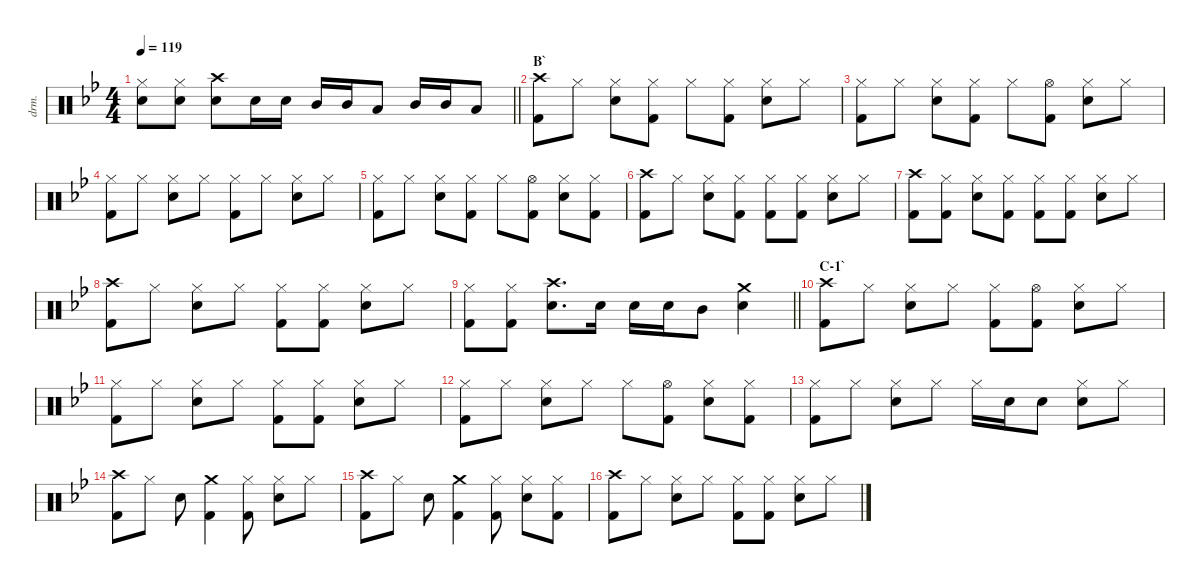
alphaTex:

\defaultSystemsLayout 4
\hideDynamics
\bracketExtendMode nobrackets
\otherSystemsTrackNameOrientation horizontal
\track ("Drums" "drm.") {instrument percussion}
\staff {score}
\articulation defaults
\ts (4 4)
\tempo 119
\clef neutral
\barLineRight lightlight
\ks bb
("Hi-Hat (closed)"{acc forcenatural} "Snare (hit) 2"{acc forcenatural}).8{dy f} ("Hi-Hat (closed)"{acc forcenatural} "Snare (hit) 2"{acc forcenatural}).8 ("Crash high (hit)"{acc forcenatural} "Snare (hit) 2"{acc forcenatural}).8 "Snare (hit) 2"{acc forcenatural}.16 "Snare (hit) 2"{acc forcenatural}.16 "Mid Tom (hit)"{acc forcenatural}.16 "Mid Tom (hit)"{acc forcenatural}.16 "Low Tom (hit)"{acc forcenatural}.8 "Mid Tom (hit)"{acc forcenatural}.16 "Mid Tom (hit)"{acc forcenatural}.16 "Low Tom (hit)"{acc forcenatural}.8 |
\section ("" "B`")
("Crash high (hit)"{acc forcenatural} "Kick (hit) 2"{acc forcenatural}).8 "Hi-Hat (closed)"{acc forcenatural}.8 ("Hi-Hat (closed)"{acc forcenatural} "Snare (hit) 2"{acc forcenatural}).8 ("Hi-Hat (closed)"{acc forcenatural} "Kick (hit) 2"{acc forcenatural}).8 "Hi-Hat (closed)"{acc forcenatural}.8 ("Hi-Hat (closed)"{acc forcenatural} "Kick (hit) 2"{acc forcenatural}).8 ("Hi-Hat (closed)"{acc forcenatural} "Snare (hit) 2"{acc forcenatural}).8 "Hi-Hat (closed)"{acc forcenatural}.8 |
("Hi-Hat (closed)"{acc forcenatural} "Kick (hit) 2"{acc forcenatural}).8 "Hi-Hat (closed)"{acc forcenatural}.8 ("Hi-Hat (closed)"{acc forcenatural} "Snare (hit) 2"{acc forcenatural}).8 ("Hi-Hat (closed)"{acc forcenatural} "Kick (hit) 2"{acc forcenatural}).8 "Hi-Hat (closed)"{acc forcenatural}.8 ("Hi-Hat (open)"{acc forcenatural} "Kick (hit) 2"{acc forcenatural}).8 ("Hi-Hat (closed)"{acc forcenatural} "Snare (hit) 2"{acc forcenatural}).8 "Hi-Hat (closed)"{acc forcenatural}.8 |
("Hi-Hat (closed)"{acc forcenatural} "Kick (hit) 2"{acc forcenatural}).8 "Hi-Hat (closed)"{acc forcenatural}.8 ("Hi-Hat (closed)"{acc forcenatural} "Snare (hit) 2"{acc forcenatural}).8 "Hi-Hat (closed)"{acc forcenatural}.8 ("Hi-Hat (closed)"{acc forcenatural} "Kick (hit) 2"{acc forcenatural}).8 "Hi-Hat (closed)"{acc forcenatural}.8 ("Hi-Hat (closed)"{acc forcenatural} "Snare (hit) 2"{acc forcenatural}).8 "Hi-Hat (closed)"{acc forcenatural}.8 |
("Hi-Hat (closed)"{acc forcenatural} "Kick (hit) 2"{acc forcenatural}).8 "Hi-Hat (closed)"{acc forcenatural}.8 ("Hi-Hat (closed)"{acc forcenatural} "Snare (hit) 2"{acc forcenatural}).8 ("Hi-Hat (closed)"{acc forcenatural} "Kick (hit) 2"{acc forcenatural}).8 "Hi-Hat (closed)"{acc forcenatural}.8 ("Hi-Hat (open)"{acc forcenatural} "Kick (hit) 2"{acc forcenatural}).8 ("Hi-Hat (closed)"{acc forcenatural} "Snare (hit) 2"{acc forcenatural}).8 ("Hi-Hat (closed)"{acc forcenatural} "Kick (hit) 2"{acc forcenatural}).8 |
("Crash high (hit)"{acc forcenatural} "Kick (hit) 2"{acc forcenatural}).8 "Hi-Hat (closed)"{acc forcenatural}.8 ("Hi-Hat (closed)"{acc forcenatural} "Snare (hit) 2"{acc forcenatural}).8 ("Hi-Hat (closed)"{acc forcenatural} "Kick (hit) 2"{acc forcenatural}).8 ("Hi-Hat (closed)"{acc forcenatural} "Kick (hit) 2"{acc forcenatural}).8 ("Hi-Hat (closed)"{acc forcenatural} "Kick (hit) 2"{acc forcenatural}).8 ("Hi-Hat (closed)"{acc forcenatural} "Snare (hit) 2"{acc forcenatural}).8 "Hi-Hat (closed)"{acc forcenatural}.8 |
("Crash high (hit)"{acc forcenatural} "Kick (hit) 2"{acc forcenatural}).8 ("Hi-Hat (closed)"{acc forcenatural} "Kick (hit) 2"{acc forcenatural}).8 ("Hi-Hat (closed)"{acc forcenatural} "Snare (hit) 2"{acc forcenatural}).8 ("Hi-Hat (closed)"{acc forcenatural} "Kick (hit) 2"{acc forcenatural}).8 ("Hi-Hat (closed)"{acc forcenatural} "Kick (hit) 2"{acc forcenatural}).8 ("Hi-Hat (closed)"{acc forcenatural} "Kick (hit) 2"{acc forcenatural}).8 ("Hi-Hat (closed)"{acc forcenatural} "Snare (hit) 2"{acc forcenatural}).8 "Hi-Hat (closed)"{acc forcenatural}.8 |
("Crash high (hit)"{acc forcenatural} "Kick (hit) 2"{acc forcenatural}).8 "Hi-Hat (closed)"{acc forcenatural}.8 ("Hi-Hat (closed)"{acc forcenatural} "Snare (hit) 2"{acc forcenatural}).8 "Hi-Hat (closed)"{acc forcenatural}.8 ("Hi-Hat (closed)"{acc forcenatural} "Kick (hit) 2"{acc forcenatural}).8 ("Hi-Hat (closed)"{acc forcenatural} "Kick (hit) 2"{acc forcenatural}).8 ("Hi-Hat (closed)"{acc forcenatural} "Snare (hit) 2"{acc forcenatural}).8 "Hi-Hat (closed)"{acc forcenatural}.8 |
\barLineRight lightlight
("Hi-Hat (closed)"{acc forcenatural} "Kick (hit) 2"{acc forcenatural}).8 ("Hi-Hat (closed)"{acc forcenatural} "Kick (hit) 2"{acc forcenatural}).8 ("Crash high (hit)"{acc forcenatural} "Snare (hit) 2"{acc forcenatural}).8{d} "Snare (hit) 2"{acc forcenatural}.16 "Snare (hit) 2"{acc forcenatural}.16 "Snare (hit) 2"{acc forcenatural}.16 "Mid Tom (hit)"{acc forcenatural}.8 ("Crash medium (hit)"{acc forcenatural} "Snare (hit) 2"{acc forcenatural}).4 |
\section ("" "C-1`")
("Crash high (hit)"{acc forcenatural} "Kick (hit) 2"{acc forcenatural}).8 "Hi-Hat (closed)"{acc forcenatural}.8 ("Hi-Hat (closed)"{acc forcenatural} "Snare (hit) 2"{acc forcenatural}).8 "Hi-Hat (closed)"{acc forcenatural}.8 ("Hi-Hat (closed)"{acc forcenatural} "Kick (hit) 2"{acc forcenatural}).8 ("Hi-Hat (open)"{acc forcenatural} "Kick (hit) 2"{acc forcenatural}).8 ("Hi-Hat (closed)"{acc forcenatural} "Snare (hit) 2"{acc forcenatural}).8 "Hi-Hat (closed)"{acc forcenatural}.8 |
("Hi-Hat (closed)"{acc forcenatural} "Kick (hit) 2"{acc forcenatural}).8 "Hi-Hat (closed)"{acc forcenatural}.8 ("Hi-Hat (closed)"{acc forcenatural} "Snare (hit) 2"{acc forcenatural}).8 "Hi-Hat (closed)"{acc forcenatural}.8 ("Hi-Hat (closed)"{acc forcenatural} "Kick (hit) 2"{acc forcenatural}).8 ("Hi-Hat (closed)"{acc forcenatural} "Kick (hit) 2"{acc forcenatural}).8 ("Hi-Hat (closed)"{acc forcenatural} "Snare (hit) 2"{acc forcenatural}).8 "Hi-Hat (closed)"{acc forcenatural}.8 |
("Hi-Hat (closed)"{acc forcenatural} "Kick (hit) 2"{acc forcenatural}).8 "Hi-Hat (closed)"{acc forcenatural}.8 ("Hi-Hat (closed)"{acc forcenatural} "Snare (hit) 2"{acc forcenatural}).8 "Hi-Hat (closed)"{acc forcenatural}.8 "Hi-Hat (closed)"{acc forcenatural}.8 ("Hi-Hat (open)"{acc forcenatural} "Kick (hit) 2"{acc forcenatural}).8 ("Hi-Hat (closed)"{acc forcenatural} "Snare (hit) 2"{acc forcenatural}).8 ("Hi-Hat (closed)"{acc forcenatural} "Kick (hit) 2"{acc forcenatural}).8 |
("Hi-Hat (closed)"{acc forcenatural} "Kick (hit) 2"{acc forcenatural}).8 "Hi-Hat (closed)"{acc forcenatural}.8 ("Hi-Hat (closed)"{acc forcenatural} "Snare (hit) 2"{acc forcenatural}).8 "Hi-Hat (closed)"{acc forcenatural}.8 "Hi-Hat (closed)"{acc forcenatural}.16 "Snare (hit) 2"{acc forcenatural}.16 "Snare (hit) 2"{acc forcenatural}.8 ("Hi-Hat (closed)"{acc forcenatural} "Snare (hit) 2"{acc forcenatural}).8 "Hi-Hat (closed)"{acc forcenatural}.8 |
("Crash high (hit)"{acc forcenatural} "Kick (hit) 2"{acc forcenatural}).8 "Hi-Hat (closed)"{acc forcenatural}.8 "Snare (hit) 2"{acc forcenatural}.8 ("Crash medium (hit)"{acc forcenatural} "Kick (hit) 2"{acc forcenatural}).4 ("Hi-Hat (closed)"{acc forcenatural} "Kick (hit) 2"{acc forcenatural}).8 ("Hi-Hat (closed)"{acc forcenatural} "Snare (hit) 2"{acc forcenatural}).8 "Hi-Hat (closed)"{acc forcenatural}.8 |
("Crash high (hit)"{acc forcenatural} "Kick (hit) 2"{acc forcenatural}).8 "Hi-Hat (closed)"{acc forcenatural}.8 "Snare (hit) 2"{acc forcenatural}.8 ("Crash medium (hit)"{acc forcenatural} "Kick (hit) 2"{acc forcenatural}).4 ("Hi-Hat (closed)"{acc forcenatural} "Kick (hit) 2"{acc forcenatural}).8 ("Hi-Hat (closed)"{acc forcenatural} "Snare (hit) 2"{acc forcenatural}).8 ("Hi-Hat (closed)"{acc forcenatural} "Kick (hit) 2"{acc forcenatural}).8 |
("Crash high (hit)"{acc forcenatural} "Kick (hit) 2"{acc forcenatural}).8 "Hi-Hat (closed)"{acc forcenatural}.8 ("Hi-Hat (closed)"{acc forcenatural} "Snare (hit) 2"{acc forcenatural}).8 "Hi-Hat (closed)"{acc forcenatural}.8 ("Hi-Hat (closed)"{acc forcenatural} "Kick (hit) 2"{acc forcenatural}).8 ("Hi-Hat (closed)"{acc forcenatural} "Kick (hit) 2"{acc forcenatural}).8 ("Hi-Hat (closed)"{acc forcenatural} "Snare (hit) 2"{acc forcenatural}).8 "Hi-Hat (closed)"{acc forcenatural}.8
